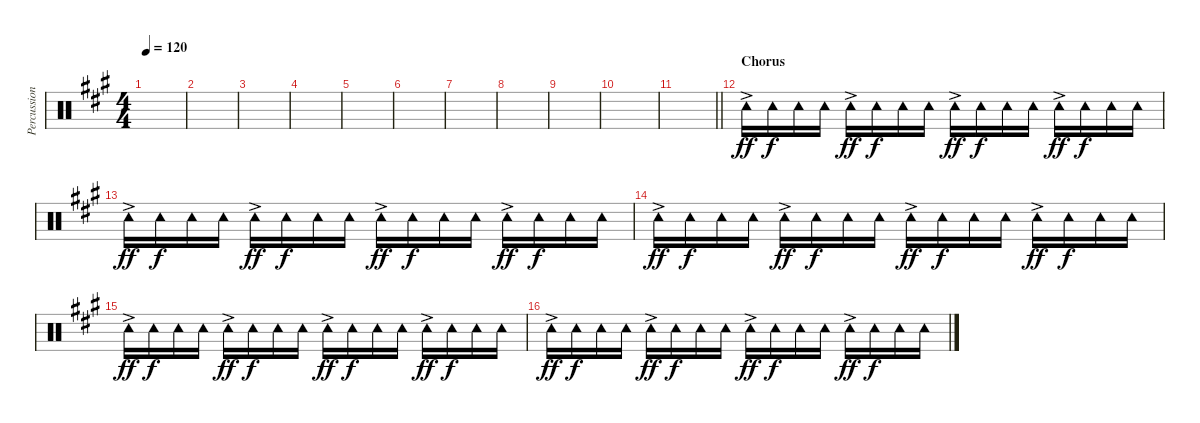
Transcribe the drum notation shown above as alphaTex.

\track ("Percussion" "Percussion") {instrument percussion}
\staff {score}
\articulation defaults
\ts (4 4)
\tempo 120
\clef neutral
\ks a
|
|
|
|
|
|
|
|
|
|
\barLineRight lightlight
|
\section ("" "Chorus")
"Tambourine (hit)"{ac}.16{dy ff} "Tambourine (hit)".16{dy f} "Tambourine (hit)".16 "Tambourine (hit)".16 "Tambourine (hit)"{ac}.16{dy ff} "Tambourine (hit)".16{dy f} "Tambourine (hit)".16 "Tambourine (hit)".16 "Tambourine (hit)"{ac}.16{dy ff} "Tambourine (hit)".16{dy f} "Tambourine (hit)".16 "Tambourine (hit)".16 "Tambourine (hit)"{ac}.16{dy ff} "Tambourine (hit)".16{dy f} "Tambourine (hit)".16 "Tambourine (hit)".16 |
"Tambourine (hit)"{ac}.16{dy ff} "Tambourine (hit)".16{dy f} "Tambourine (hit)".16 "Tambourine (hit)".16 "Tambourine (hit)"{ac}.16{dy ff} "Tambourine (hit)".16{dy f} "Tambourine (hit)".16 "Tambourine (hit)".16 "Tambourine (hit)"{ac}.16{dy ff} "Tambourine (hit)".16{dy f} "Tambourine (hit)".16 "Tambourine (hit)".16 "Tambourine (hit)"{ac}.16{dy ff} "Tambourine (hit)".16{dy f} "Tambourine (hit)".16 "Tambourine (hit)".16 |
"Tambourine (hit)"{ac}.16{dy ff} "Tambourine (hit)".16{dy f} "Tambourine (hit)".16 "Tambourine (hit)".16 "Tambourine (hit)"{ac}.16{dy ff} "Tambourine (hit)".16{dy f} "Tambourine (hit)".16 "Tambourine (hit)".16 "Tambourine (hit)"{ac}.16{dy ff} "Tambourine (hit)".16{dy f} "Tambourine (hit)".16 "Tambourine (hit)".16 "Tambourine (hit)"{ac}.16{dy ff} "Tambourine (hit)".16{dy f} "Tambourine (hit)".16 "Tambourine (hit)".16 |
"Tambourine (hit)"{ac}.16{dy ff} "Tambourine (hit)".16{dy f} "Tambourine (hit)".16 "Tambourine (hit)".16 "Tambourine (hit)"{ac}.16{dy ff} "Tambourine (hit)".16{dy f} "Tambourine (hit)".16 "Tambourine (hit)".16 "Tambourine (hit)"{ac}.16{dy ff} "Tambourine (hit)".16{dy f} "Tambourine (hit)".16 "Tambourine (hit)".16 "Tambourine (hit)"{ac}.16{dy ff} "Tambourine (hit)".16{dy f} "Tambourine (hit)".16 "Tambourine (hit)".16 |
"Tambourine (hit)"{ac}.16{dy ff} "Tambourine (hit)".16{dy f} "Tambourine (hit)".16 "Tambourine (hit)".16 "Tambourine (hit)"{ac}.16{dy ff} "Tambourine (hit)".16{dy f} "Tambourine (hit)".16 "Tambourine (hit)".16 "Tambourine (hit)"{ac}.16{dy ff} "Tambourine (hit)".16{dy f} "Tambourine (hit)".16 "Tambourine (hit)".16 "Tambourine (hit)"{ac}.16{dy ff} "Tambourine (hit)".16{dy f} "Tambourine (hit)".16 "Tambourine (hit)".16
